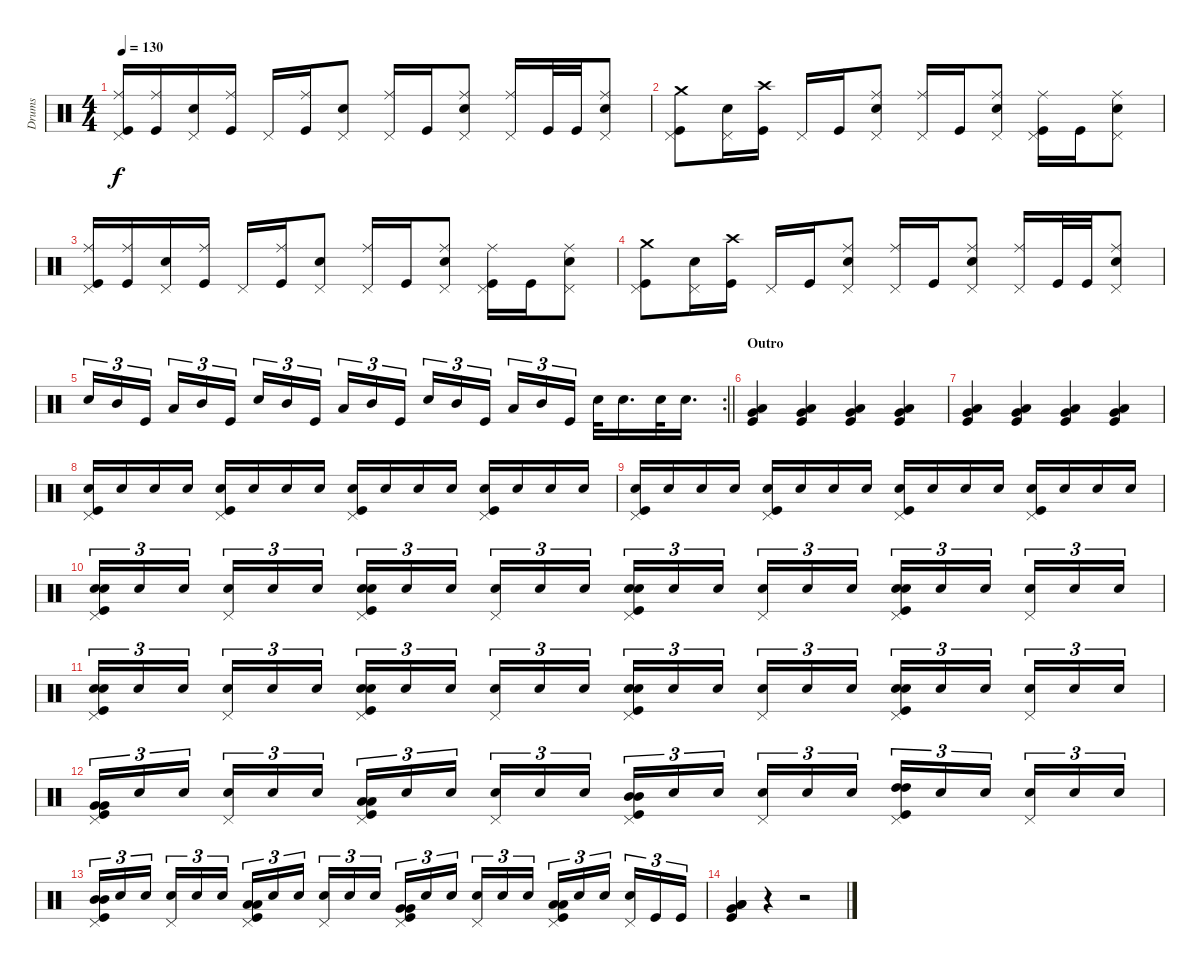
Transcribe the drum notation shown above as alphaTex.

\track ("Drums" "Drums") {instrument percussion}
\staff {score}
\articulation defaults
\ts (4 4)
\tempo 130
\clef neutral
\ks c
("Ride (middle)" "Pedal Hi-Hat (hit)" "Kick (hit)").16{dy f} ("Ride (middle)" "Kick (hit)").16 ("Snare (hit) 2" "Pedal Hi-Hat (hit)").16 ("Ride (middle)" "Kick (hit)").16 "Pedal Hi-Hat (hit)".16 ("Ride (middle)" "Kick (hit)").16 ("Snare (hit) 2" "Pedal Hi-Hat (hit)").8 ("Ride (middle)" "Pedal Hi-Hat (hit)").16 "Kick (hit)".16 ("Ride (middle)" "Snare (hit) 2" "Pedal Hi-Hat (hit)").8 ("Ride (middle)" "Pedal Hi-Hat (hit)").16 "Kick (hit)".32 "Kick (hit)".32 ("Ride (middle)" "Snare (hit) 2" "Pedal Hi-Hat (hit)").8 |
("Crash medium (hit)" "Pedal Hi-Hat (hit)" "Kick (hit)").8 ("Snare (hit) 2" "Pedal Hi-Hat (hit)").16 ("Crash high (hit)" "Kick (hit)").16 "Pedal Hi-Hat (hit)".16 "Kick (hit)".16 ("Ride (middle)" "Snare (hit) 2" "Pedal Hi-Hat (hit)").8 ("Ride (middle)" "Pedal Hi-Hat (hit)").16 "Kick (hit)".16 ("Ride (middle)" "Snare (hit) 2" "Pedal Hi-Hat (hit)").8 ("Ride (middle)" "Pedal Hi-Hat (hit)" "Kick (hit)").16 "Kick (hit)".16 ("Ride (middle)" "Snare (hit) 2" "Pedal Hi-Hat (hit)").8 |
("Ride (middle)" "Pedal Hi-Hat (hit)" "Kick (hit)").16 ("Ride (middle)" "Kick (hit)").16 ("Snare (hit) 2" "Pedal Hi-Hat (hit)").16 ("Ride (middle)" "Kick (hit)").16 "Pedal Hi-Hat (hit)".16 ("Ride (middle)" "Kick (hit)").16 ("Snare (hit) 2" "Pedal Hi-Hat (hit)").8 ("Ride (middle)" "Pedal Hi-Hat (hit)").16 "Kick (hit)".16 ("Ride (middle)" "Snare (hit) 2" "Pedal Hi-Hat (hit)").8 ("Ride (middle)" "Pedal Hi-Hat (hit)" "Kick (hit)").16 "Kick (hit)".16 ("Ride (middle)" "Snare (hit) 2" "Pedal Hi-Hat (hit)").8 |
("Crash medium (hit)" "Pedal Hi-Hat (hit)" "Kick (hit)").8 ("Snare (hit) 2" "Pedal Hi-Hat (hit)").16 ("Crash high (hit)" "Kick (hit)").16 "Pedal Hi-Hat (hit)".16 "Kick (hit)".16 ("Ride (middle)" "Snare (hit) 2" "Pedal Hi-Hat (hit)").8 ("Ride (middle)" "Pedal Hi-Hat (hit)").16 "Kick (hit)".16 ("Ride (middle)" "Snare (hit) 2" "Pedal Hi-Hat (hit)").8 ("Ride (middle)" "Pedal Hi-Hat (hit)").16 "Kick (hit)".32 "Kick (hit)".32 ("Ride (middle)" "Snare (hit) 2" "Pedal Hi-Hat (hit)").8 |
\rc 2
\barLineRight lightlight "Snare (hit) 2".16{tu (3 2)} "Mid Tom (hit)".16{tu (3 2)} "Kick (hit)".16{tu (3 2) beam splitsecondary} "Low Tom (hit)".16{tu (3 2)} "Mid Tom (hit)".16{tu (3 2)} "Kick (hit)".16{tu (3 2)} "Snare (hit) 2".16{tu (3 2)} "Mid Tom (hit)".16{tu (3 2)} "Kick (hit)".16{tu (3 2) beam splitsecondary} "Low Tom (hit)".16{tu (3 2)} "Mid Tom (hit)".16{tu (3 2)} "Kick (hit)".16{tu (3 2)} "Snare (hit) 2".16{tu (3 2)} "Mid Tom (hit)".16{tu (3 2)} "Kick (hit)".16{tu (3 2) beam splitsecondary} "Low Tom (hit)".16{tu (3 2)} "Mid Tom (hit)".16{tu (3 2)} "Kick (hit)".16{tu (3 2)} "Snare (hit) 2".32 "Snare (hit) 2".16{d} "Snare (hit) 2".32 "Snare (hit) 2".16{d}
|
\section ("" "Outro")
("Very Low Tom (hit)" "Low Floor Tom (hit)" "Kick (hit)").4 ("Very Low Tom (hit)" "Low Floor Tom (hit)" "Kick (hit)").4 ("Very Low Tom (hit)" "Low Floor Tom (hit)" "Kick (hit)").4 ("Very Low Tom (hit)" "Low Floor Tom (hit)" "Kick (hit)").4 |
("Very Low Tom (hit)" "Low Floor Tom (hit)" "Kick (hit)").4 ("Very Low Tom (hit)" "Low Floor Tom (hit)" "Kick (hit)").4 ("Very Low Tom (hit)" "Low Floor Tom (hit)" "Kick (hit)").4 ("Very Low Tom (hit)" "Low Floor Tom (hit)" "Kick (hit)").4 |
("Snare (hit) 2" "Pedal Hi-Hat (hit)" "Kick (hit)").16 "Snare (hit) 2".16 "Snare (hit) 2".16 "Snare (hit) 2".16 ("Snare (hit) 2" "Pedal Hi-Hat (hit)" "Kick (hit)").16 "Snare (hit) 2".16 "Snare (hit) 2".16 "Snare (hit) 2".16 ("Snare (hit) 2" "Pedal Hi-Hat (hit)" "Kick (hit)").16 "Snare (hit) 2".16 "Snare (hit) 2".16 "Snare (hit) 2".16 ("Snare (hit) 2" "Pedal Hi-Hat (hit)" "Kick (hit)").16 "Snare (hit) 2".16 "Snare (hit) 2".16 "Snare (hit) 2".16 |
("Snare (hit) 2" "Pedal Hi-Hat (hit)" "Kick (hit)").16 "Snare (hit) 2".16 "Snare (hit) 2".16 "Snare (hit) 2".16 ("Snare (hit) 2" "Pedal Hi-Hat (hit)" "Kick (hit)").16 "Snare (hit) 2".16 "Snare (hit) 2".16 "Snare (hit) 2".16 ("Snare (hit) 2" "Pedal Hi-Hat (hit)" "Kick (hit)").16 "Snare (hit) 2".16 "Snare (hit) 2".16 "Snare (hit) 2".16 ("Snare (hit) 2" "Pedal Hi-Hat (hit)" "Kick (hit)").16 "Snare (hit) 2".16 "Snare (hit) 2".16 "Snare (hit) 2".16 |
("Snare (hit) 2" "Snare (hit) 2" "Pedal Hi-Hat (hit)" "Kick (hit)").16{tu (3 2)} "Snare (hit) 2".16{tu (3 2)} "Snare (hit) 2".16{tu (3 2) beam splitsecondary} ("Snare (hit) 2" "Pedal Hi-Hat (hit)").16{tu (3 2)} "Snare (hit) 2".16{tu (3 2)} "Snare (hit) 2".16{tu (3 2)} ("Snare (hit) 2" "Snare (hit) 2" "Pedal Hi-Hat (hit)" "Kick (hit)").16{tu (3 2)} "Snare (hit) 2".16{tu (3 2)} "Snare (hit) 2".16{tu (3 2) beam splitsecondary} ("Snare (hit) 2" "Pedal Hi-Hat (hit)").16{tu (3 2)} "Snare (hit) 2".16{tu (3 2)} "Snare (hit) 2".16{tu (3 2)} ("Snare (hit) 2" "Snare (hit) 2" "Pedal Hi-Hat (hit)" "Kick (hit)").16{tu (3 2)} "Snare (hit) 2".16{tu (3 2)} "Snare (hit) 2".16{tu (3 2) beam splitsecondary} ("Snare (hit) 2" "Pedal Hi-Hat (hit)").16{tu (3 2)} "Snare (hit) 2".16{tu (3 2)} "Snare (hit) 2".16{tu (3 2)} ("Snare (hit) 2" "Snare (hit) 2" "Pedal Hi-Hat (hit)" "Kick (hit)").16{tu (3 2)} "Snare (hit) 2".16{tu (3 2)} "Snare (hit) 2".16{tu (3 2) beam splitsecondary} ("Snare (hit) 2" "Pedal Hi-Hat (hit)").16{tu (3 2)} "Snare (hit) 2".16{tu (3 2)} "Snare (hit) 2".16{tu (3 2)} |
("Snare (hit) 2" "Snare (hit) 2" "Pedal Hi-Hat (hit)" "Kick (hit)").16{tu (3 2)} "Snare (hit) 2".16{tu (3 2)} "Snare (hit) 2".16{tu (3 2) beam splitsecondary} ("Snare (hit) 2" "Pedal Hi-Hat (hit)").16{tu (3 2)} "Snare (hit) 2".16{tu (3 2)} "Snare (hit) 2".16{tu (3 2)} ("Snare (hit) 2" "Snare (hit) 2" "Pedal Hi-Hat (hit)" "Kick (hit)").16{tu (3 2)} "Snare (hit) 2".16{tu (3 2)} "Snare (hit) 2".16{tu (3 2) beam splitsecondary} ("Snare (hit) 2" "Pedal Hi-Hat (hit)").16{tu (3 2)} "Snare (hit) 2".16{tu (3 2)} "Snare (hit) 2".16{tu (3 2)} ("Snare (hit) 2" "Snare (hit) 2" "Pedal Hi-Hat (hit)" "Kick (hit)").16{tu (3 2)} "Snare (hit) 2".16{tu (3 2)} "Snare (hit) 2".16{tu (3 2) beam splitsecondary} ("Snare (hit) 2" "Pedal Hi-Hat (hit)").16{tu (3 2)} "Snare (hit) 2".16{tu (3 2)} "Snare (hit) 2".16{tu (3 2)} ("Snare (hit) 2" "Snare (hit) 2" "Pedal Hi-Hat (hit)" "Kick (hit)").16{tu (3 2)} "Snare (hit) 2".16{tu (3 2)} "Snare (hit) 2".16{tu (3 2) beam splitsecondary} ("Snare (hit) 2" "Pedal Hi-Hat (hit)").16{tu (3 2)} "Snare (hit) 2".16{tu (3 2)} "Snare (hit) 2".16{tu (3 2)} |
("Very Low Tom (hit)" "Very Low Tom (hit)" "Pedal Hi-Hat (hit)" "Kick (hit)").16{tu (3 2)} "Snare (hit) 2".16{tu (3 2)} "Snare (hit) 2".16{tu (3 2) beam splitsecondary} ("Snare (hit) 2" "Pedal Hi-Hat (hit)").16{tu (3 2)} "Snare (hit) 2".16{tu (3 2)} "Snare (hit) 2".16{tu (3 2)} ("Low Tom (hit)" "Low Tom (hit)" "Pedal Hi-Hat (hit)" "Kick (hit)").16{tu (3 2)} "Snare (hit) 2".16{tu (3 2)} "Snare (hit) 2".16{tu (3 2) beam splitsecondary} ("Snare (hit) 2" "Pedal Hi-Hat (hit)").16{tu (3 2)} "Snare (hit) 2".16{tu (3 2)} "Snare (hit) 2".16{tu (3 2)} ("Mid Tom (hit)" "Mid Tom (hit)" "Pedal Hi-Hat (hit)" "Kick (hit)").16{tu (3 2)} "Snare (hit) 2".16{tu (3 2)} "Snare (hit) 2".16{tu (3 2) beam splitsecondary} ("Snare (hit) 2" "Pedal Hi-Hat (hit)").16{tu (3 2)} "Snare (hit) 2".16{tu (3 2)} "Snare (hit) 2".16{tu (3 2)} ("High Tom (hit)" "High Tom (hit)" "Pedal Hi-Hat (hit)" "Kick (hit)").16{tu (3 2)} "Snare (hit) 2".16{tu (3 2)} "Snare (hit) 2".16{tu (3 2) beam splitsecondary} ("Snare (hit) 2" "Pedal Hi-Hat (hit)").16{tu (3 2)} "Snare (hit) 2".16{tu (3 2)} "Snare (hit) 2".16{tu (3 2)} |
("Mid Tom (hit)" "Mid Tom (hit)" "Pedal Hi-Hat (hit)" "Kick (hit)").16{tu (3 2)} "Snare (hit) 2".16{tu (3 2)} "Snare (hit) 2".16{tu (3 2) beam splitsecondary} ("Snare (hit) 2" "Pedal Hi-Hat (hit)").16{tu (3 2)} "Snare (hit) 2".16{tu (3 2)} "Snare (hit) 2".16{tu (3 2)} ("Low Tom (hit)" "Low Tom (hit)" "Pedal Hi-Hat (hit)" "Kick (hit)").16{tu (3 2)} "Snare (hit) 2".16{tu (3 2)} "Snare (hit) 2".16{tu (3 2) beam splitsecondary} ("Snare (hit) 2" "Pedal Hi-Hat (hit)").16{tu (3 2)} "Snare (hit) 2".16{tu (3 2)} "Snare (hit) 2".16{tu (3 2)} ("Very Low Tom (hit)" "Very Low Tom (hit)" "Pedal Hi-Hat (hit)" "Kick (hit)").16{tu (3 2)} "Snare (hit) 2".16{tu (3 2)} "Snare (hit) 2".16{tu (3 2) beam splitsecondary} ("Snare (hit) 2" "Pedal Hi-Hat (hit)").16{tu (3 2)} "Snare (hit) 2".16{tu (3 2)} "Snare (hit) 2".16{tu (3 2)} ("Low Tom (hit)" "Low Tom (hit)" "Pedal Hi-Hat (hit)" "Kick (hit)").16{tu (3 2)} "Snare (hit) 2".16{tu (3 2)} "Snare (hit) 2".16{tu (3 2) beam splitsecondary} ("Snare (hit) 2" "Pedal Hi-Hat (hit)").16{tu (3 2)} "Kick (hit)".16{tu (3 2)} "Kick (hit)".16{tu (3 2)} |
("Low Tom (hit)" "Very Low Tom (hit)" "Low Floor Tom (hit)" "Kick (hit)").4 r.4 r.2
